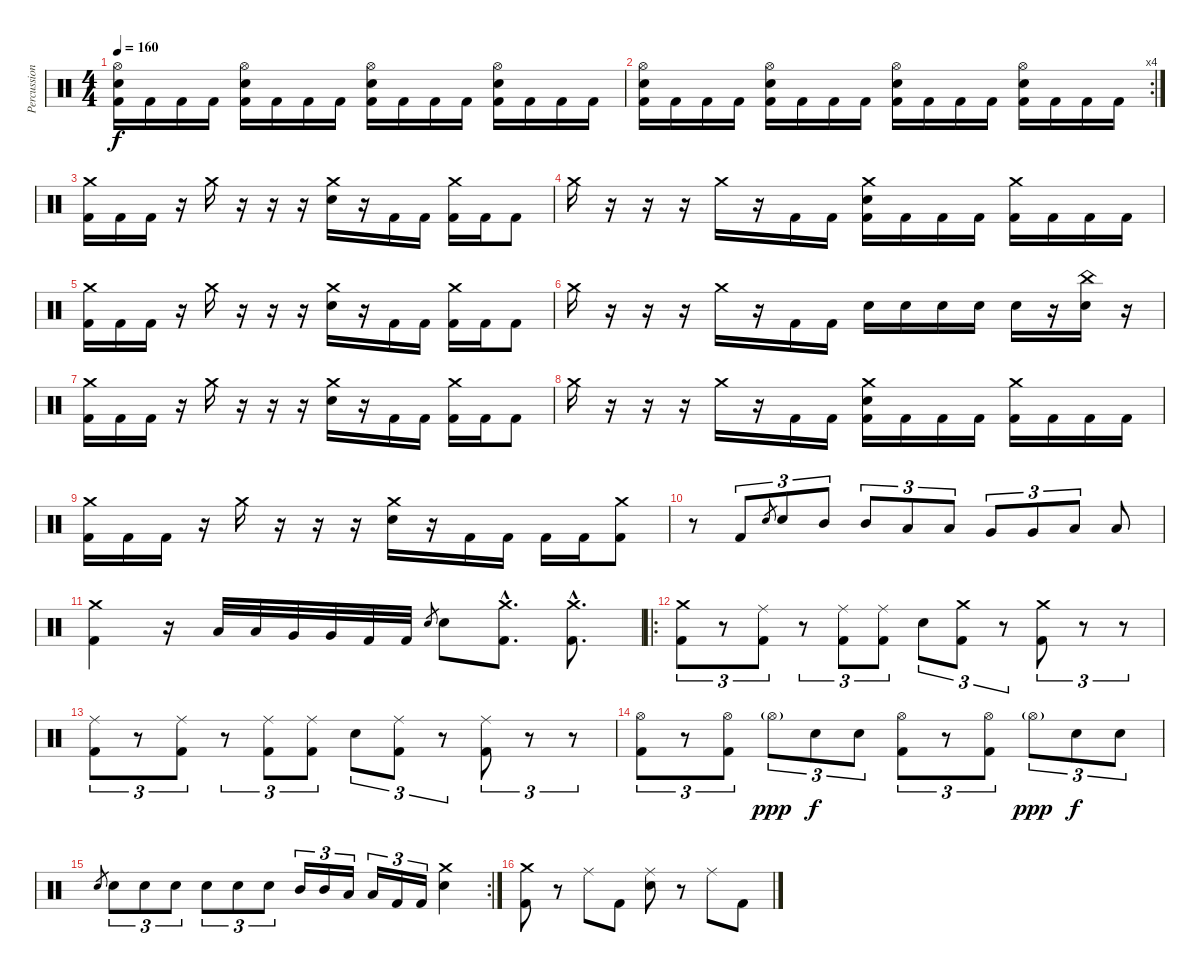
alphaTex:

\track ("Percussion" "Percussion") {instrument percussion}
\staff {score}
\articulation defaults
\ts (4 4)
\tempo 160
\clef neutral
\ks c
("Hi-Hat (open)" "Electric Snare (hit)" "Kick (hit) 2").16{dy f} "Kick (hit) 2".16 "Kick (hit) 2".16 "Kick (hit) 2".16 ("Hi-Hat (open)" "Electric Snare (hit)" "Kick (hit) 2").16 "Kick (hit) 2".16 "Kick (hit) 2".16 "Kick (hit) 2".16 ("Hi-Hat (open)" "Electric Snare (hit)" "Kick (hit) 2").16 "Kick (hit) 2".16 "Kick (hit) 2".16 "Kick (hit) 2".16 ("Hi-Hat (open)" "Electric Snare (hit)" "Kick (hit) 2").16 "Kick (hit) 2".16 "Kick (hit) 2".16 "Kick (hit) 2".16 |
\rc 4
("Hi-Hat (open)" "Electric Snare (hit)" "Kick (hit) 2").16 "Kick (hit) 2".16 "Kick (hit) 2".16 "Kick (hit) 2".16 ("Hi-Hat (open)" "Electric Snare (hit)" "Kick (hit) 2").16 "Kick (hit) 2".16 "Kick (hit) 2".16 "Kick (hit) 2".16 ("Hi-Hat (open)" "Electric Snare (hit)" "Kick (hit) 2").16 "Kick (hit) 2".16 "Kick (hit) 2".16 "Kick (hit) 2".16 ("Hi-Hat (open)" "Electric Snare (hit)" "Kick (hit) 2").16 "Kick (hit) 2".16 "Kick (hit) 2".16 "Kick (hit) 2".16 |
("Crash medium (hit)" "Kick (hit) 2").16 "Kick (hit) 2".16 "Kick (hit) 2".16 r.16 "Crash medium (hit)".16 r.16 r.16 r.16 ("Crash medium (hit)" "Electric Snare (hit)").16 r.16 "Kick (hit) 2".16 "Kick (hit) 2".16 ("Crash medium (hit)" "Kick (hit) 2").16 "Kick (hit) 2".16 "Kick (hit) 2".8 |
"Crash medium (hit)".16 r.16 r.16 r.16 "Crash medium (hit)".16 r.16 "Kick (hit) 2".16 "Kick (hit) 2".16 ("Crash medium (hit)" "Kick (hit) 2" "Electric Snare (hit)").16 "Kick (hit) 2".16 "Kick (hit) 2".16 "Kick (hit) 2".16 ("Crash medium (hit)" "Kick (hit) 2").16 "Kick (hit) 2".16 "Kick (hit) 2".16 "Kick (hit) 2".16 |
("Crash medium (hit)" "Kick (hit) 2").16 "Kick (hit) 2".16 "Kick (hit) 2".16 r.16 "Crash medium (hit)".16 r.16 r.16 r.16 ("Crash medium (hit)" "Electric Snare (hit)").16 r.16 "Kick (hit) 2".16 "Kick (hit) 2".16 ("Crash medium (hit)" "Kick (hit) 2").16 "Kick (hit) 2".16 "Kick (hit) 2".8 |
"Crash medium (hit)".16 r.16 r.16 r.16 "Crash medium (hit)".16 r.16 "Kick (hit) 2".16 "Kick (hit) 2".16 "Electric Snare (hit)".16 "Electric Snare (hit)".16 "Electric Snare (hit)".16 "Electric Snare (hit)".16 "Electric Snare (hit)".16 r.16 ("China (hit)" "Electric Snare (hit)").16 r.16 |
("Crash medium (hit)" "Kick (hit) 2").16 "Kick (hit) 2".16 "Kick (hit) 2".16 r.16 "Crash medium (hit)".16 r.16 r.16 r.16 ("Crash medium (hit)" "Electric Snare (hit)").16 r.16 "Kick (hit) 2".16 "Kick (hit) 2".16 ("Crash medium (hit)" "Kick (hit) 2").16 "Kick (hit) 2".16 "Kick (hit) 2".8 |
"Crash medium (hit)".16 r.16 r.16 r.16 "Crash medium (hit)".16 r.16 "Kick (hit) 2".16 "Kick (hit) 2".16 ("Crash medium (hit)" "Kick (hit) 2" "Electric Snare (hit)").16 "Kick (hit) 2".16 "Kick (hit) 2".16 "Kick (hit) 2".16 ("Crash medium (hit)" "Kick (hit) 2").16 "Kick (hit) 2".16 "Kick (hit) 2".16 "Kick (hit) 2".16 |
("Crash medium (hit)" "Kick (hit) 2").16 "Kick (hit) 2".16 "Kick (hit) 2".16 r.16 "Crash medium (hit)".16 r.16 r.16 r.16 ("Crash medium (hit)" "Electric Snare (hit)").16 r.16 "Kick (hit) 2".16 "Kick (hit) 2".16 "Kick (hit) 2".16 "Kick (hit) 2".16 ("Crash medium (hit)" "Kick (hit) 2").8 |
r.8 "Kick (hit) 2".8{tu (3 2)} "Electric Snare (hit)".8{gr} "Electric Snare (hit)".8{tu (3 2)} "Mid Tom (hit)".8{tu (3 2)} "Mid Tom (hit)".8{tu (3 2)} "Low Tom (hit)".8{tu (3 2)} "Low Tom (hit)".8{tu (3 2)} "Very Low Tom (hit)".8{tu (3 2)} "Very Low Tom (hit)".8{tu (3 2)} "Low Floor Tom (hit)".8{tu (3 2)} "Low Floor Tom (hit)".8 |
("Crash medium (hit)" "Kick (hit) 2").4 r.16 "Low Tom (hit)".32 "Low Tom (hit)".32 "Very Low Tom (hit)".32 "Very Low Tom (hit)".32 "Kick (hit) 2".32 "Kick (hit) 2".32 "Electric Snare (hit)".8{gr} "Electric Snare (hit)".8 ("Crash medium (hit)"{hac} "Kick (hit) 2"{hac}).8{d} ("Crash medium (hit)"{hac} "Kick (hit) 2"{hac}).8{d} |
\ro
("Crash medium (hit)" "Kick (hit) 2").8{tu (3 2)} r.8{tu (3 2)} ("Ride (middle)" "Kick (hit) 2").8{tu (3 2)} r.8{tu (3 2)} ("Ride (middle)" "Kick (hit) 2").8{tu (3 2)} ("Ride (middle)" "Kick (hit) 2").8{tu (3 2)} "Electric Snare (hit)".8{tu (3 2)} ("Crash medium (hit)" "Kick (hit) 2").8{tu (3 2)} r.8{tu (3 2)} ("Crash medium (hit)" "Kick (hit) 2").8{tu (3 2)} r.8{tu (3 2)} r.8{tu (3 2)} |
("Ride (middle)" "Kick (hit) 2").8{tu (3 2)} r.8{tu (3 2)} ("Ride (middle)" "Kick (hit) 2").8{tu (3 2)} r.8{tu (3 2)} ("Ride (middle)" "Kick (hit) 2").8{tu (3 2)} ("Ride (middle)" "Kick (hit) 2").8{tu (3 2)} "Electric Snare (hit)".8{tu (3 2)} ("Ride (middle)" "Kick (hit) 2").8{tu (3 2)} r.8{tu (3 2)} ("Ride (middle)" "Kick (hit) 2").8{tu (3 2)} r.8{tu (3 2)} r.8{tu (3 2)} |
("Hi-Hat (open)" "Kick (hit) 2").8{tu (3 2)} r.8{tu (3 2)} ("Hi-Hat (open)" "Kick (hit) 2").8{tu (3 2)} "Hi-Hat (open)"{g}.8{tu (3 2) dy ppp} "Electric Snare (hit)".8{tu (3 2) dy f} "Electric Snare (hit)".8{tu (3 2)} ("Hi-Hat (open)" "Kick (hit) 2").8{tu (3 2)} r.8{tu (3 2)} ("Hi-Hat (open)" "Kick (hit) 2").8{tu (3 2)} "Hi-Hat (open)"{g}.8{tu (3 2) dy ppp} "Electric Snare (hit)".8{tu (3 2) dy f} "Electric Snare (hit)".8{tu (3 2)} |
\rc 2 "Electric Snare (hit)".8{gr} "Electric Snare (hit)".8{tu (3 2)} "Electric Snare (hit)".8{tu (3 2)} "Electric Snare (hit)".8{tu (3 2)} "Electric Snare (hit)".8{tu (3 2)} "Electric Snare (hit)".8{tu (3 2)} "Electric Snare (hit)".8{tu (3 2)} "Mid Tom (hit)".16{tu (3 2)} "Mid Tom (hit)".16{tu (3 2)} "Low Tom (hit)".16{tu (3 2)} "Low Tom (hit)".16{tu (3 2)} "Kick (hit) 2".16{tu (3 2)} "Kick (hit) 2".16{tu (3 2)}
("Crash medium (hit)" "Electric Snare (hit)").4 |
("Crash medium (hit)" "Kick (hit) 2").8 r.8 "Ride (middle)".8 "Kick (hit) 2".8 ("Ride (middle)" "Electric Snare (hit)").8 r.8 "Ride (middle)".8 "Kick (hit) 2".8
